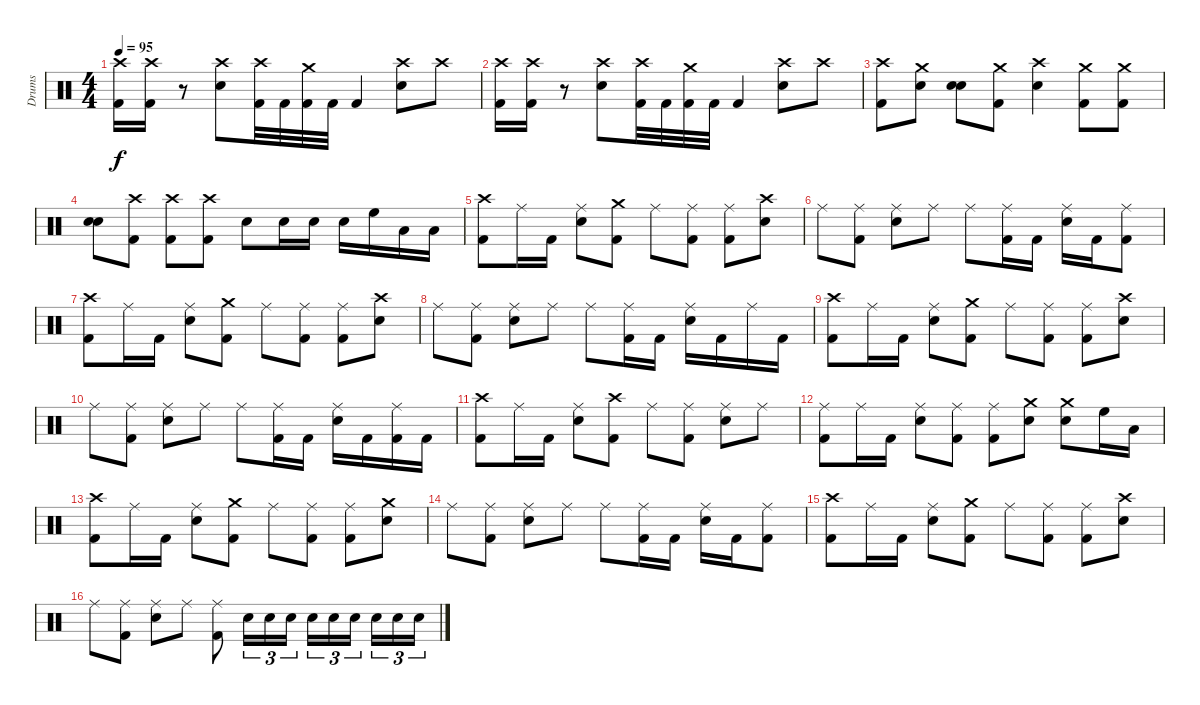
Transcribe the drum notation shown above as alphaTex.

\track ("Drums" "Drums") {instrument percussion}
\staff {score}
\articulation defaults
\ts (4 4)
\tempo 95
\clef neutral
\ks c
("Crash high (hit)" "Kick (hit) 2").16{dy f} ("Crash high (hit)" "Kick (hit) 2").16 r.8 ("Crash high (hit)" "Snare (hit) 2").8 ("Crash high (hit)" "Kick (hit) 2").32 "Kick (hit) 2".32 ("Crash medium (hit)" "Kick (hit) 2").32 "Kick (hit) 2".32 "Kick (hit) 2".4 ("Crash high (hit)" "Snare (hit) 2").8 "Crash high (hit)".8 |
("Crash high (hit)" "Kick (hit) 2").16 ("Crash high (hit)" "Kick (hit) 2").16 r.8 ("Crash high (hit)" "Snare (hit) 2").8 ("Crash high (hit)" "Kick (hit) 2").32 "Kick (hit) 2".32 ("Crash medium (hit)" "Kick (hit) 2").32 "Kick (hit) 2".32 "Kick (hit) 2".4 ("Crash high (hit)" "Snare (hit) 2").8 "Crash high (hit)".8 |
("Crash high (hit)" "Kick (hit) 2").8 ("Crash medium (hit)" "Snare (hit) 2").8 ("Snare (hit)" "Snare (hit)").8 ("Crash medium (hit)" "Kick (hit) 2").8 ("Crash high (hit)" "Snare (hit) 2").4 ("Crash medium (hit)" "Kick (hit) 2").8 ("Crash medium (hit)" "Kick (hit) 2").8 |
("Snare (hit)" "Snare (hit)").8 ("Crash high (hit)" "Kick (hit) 2").8 ("Crash high (hit)" "Kick (hit) 2").8 ("Crash high (hit)" "Kick (hit) 2").8 "Snare (hit) 2".8 "Snare (hit) 2".16 "Snare (hit) 2".16 "Snare (hit) 2".16 "High Floor Tom (hit)".16 "Low Tom (hit)".16 "Low Tom (hit)".16 |
("Crash high (hit)" "Kick (hit) 2").8 "Ride (middle)".16 "Kick (hit) 2".16 ("Ride (middle)" "Snare (hit) 2").8 ("Crash medium (hit)" "Kick (hit) 2").8 "Ride (middle)".8 ("Ride (middle)" "Kick (hit) 2").8 ("Ride (middle)" "Kick (hit) 2").8 ("Crash high (hit)" "Snare (hit) 2").8 |
"Ride (middle)".8 ("Ride (middle)" "Kick (hit) 2").8 ("Ride (middle)" "Snare (hit) 2").8 "Ride (middle)".8 "Ride (middle)".8 ("Ride (middle)" "Kick (hit) 2").16 "Kick (hit) 2".16 ("Ride (middle)" "Snare (hit) 2").16 "Kick (hit) 2".16 ("Ride (middle)" "Kick (hit) 2").8 |
("Crash high (hit)" "Kick (hit) 2").8 "Ride (middle)".16 "Kick (hit) 2".16 ("Ride (middle)" "Snare (hit) 2").8 ("Crash medium (hit)" "Kick (hit) 2").8 "Ride (middle)".8 ("Ride (middle)" "Kick (hit) 2").8 ("Ride (middle)" "Kick (hit) 2").8 ("Crash high (hit)" "Snare (hit) 2").8 |
"Ride (middle)".8 ("Ride (middle)" "Kick (hit) 2").8 ("Ride (middle)" "Snare (hit) 2").8 "Ride (middle)".8 "Ride (middle)".8 ("Ride (middle)" "Kick (hit) 2").16 "Kick (hit) 2".16 ("Ride (middle)" "Snare (hit) 2").16 "Kick (hit) 2".16 "Ride (middle)".16 "Kick (hit) 2".16 |
("Crash high (hit)" "Kick (hit) 2").8 "Ride (middle)".16 "Kick (hit) 2".16 ("Ride (middle)" "Snare (hit) 2").8 ("Crash medium (hit)" "Kick (hit) 2").8 "Ride (middle)".8 ("Ride (middle)" "Kick (hit) 2").8 ("Ride (middle)" "Kick (hit) 2").8 ("Crash high (hit)" "Snare (hit) 2").8 |
"Ride (middle)".8 ("Ride (middle)" "Kick (hit) 2").8 ("Ride (middle)" "Snare (hit) 2").8 "Ride (middle)".8 "Ride (middle)".8 ("Ride (middle)" "Kick (hit) 2").16 "Kick (hit) 2".16 ("Ride (middle)" "Snare (hit) 2").16 "Kick (hit) 2".16 ("Ride (middle)" "Kick (hit) 2").16 "Kick (hit) 2".16 |
("Crash high (hit)" "Kick (hit) 2").8 "Ride (middle)".16 "Kick (hit) 2".16 ("Ride (middle)" "Snare (hit) 2").8 ("Crash high (hit)" "Kick (hit) 2").8 "Ride (middle)".8 ("Ride (middle)" "Kick (hit) 2").8 ("Ride (middle)" "Snare (hit) 2").8 "Ride (middle)".8 |
("Ride (middle)" "Kick (hit) 2").8 "Ride (middle)".16 "Kick (hit) 2".16 ("Ride (middle)" "Snare (hit) 2").8 ("Ride (middle)" "Kick (hit) 2").8 ("Ride (middle)" "Kick (hit) 2").8 ("Crash medium (hit)" "Snare (hit) 2").8 ("Crash medium (hit)" "Snare (hit) 2").8 "High Floor Tom (hit)".16 "Low Tom (hit)".16 |
("Crash high (hit)" "Kick (hit) 2").8 "Ride (middle)".16 "Kick (hit) 2".16 ("Ride (middle)" "Snare (hit) 2").8 ("Crash medium (hit)" "Kick (hit) 2").8 "Ride (middle)".8 ("Ride (middle)" "Kick (hit) 2").8 ("Ride (middle)" "Kick (hit) 2").8 ("Crash medium (hit)" "Snare (hit) 2").8 |
"Ride (middle)".8 ("Ride (middle)" "Kick (hit) 2").8 ("Ride (middle)" "Snare (hit) 2").8 "Ride (middle)".8 "Ride (middle)".8 ("Ride (middle)" "Kick (hit) 2").16 "Kick (hit) 2".16 ("Ride (middle)" "Snare (hit) 2").16 "Kick (hit) 2".16 ("Ride (middle)" "Kick (hit) 2").8 |
("Crash high (hit)" "Kick (hit) 2").8 "Ride (middle)".16 "Kick (hit) 2".16 ("Ride (middle)" "Snare (hit) 2").8 ("Crash medium (hit)" "Kick (hit) 2").8 "Ride (middle)".8 ("Ride (middle)" "Kick (hit) 2").8 ("Ride (middle)" "Kick (hit) 2").8 ("Crash high (hit)" "Snare (hit) 2").8 |
"Ride (middle)".8 ("Ride (middle)" "Kick (hit) 2").8 ("Ride (middle)" "Snare (hit) 2").8 "Ride (middle)".8 ("Ride (middle)" "Kick (hit) 2").8 "Snare (hit) 2".16{tu (3 2)} "Snare (hit) 2".16{tu (3 2)} "Snare (hit) 2".16{tu (3 2)} "Snare (hit) 2".16{tu (3 2)} "Snare (hit) 2".16{tu (3 2)} "Snare (hit) 2".16{tu (3 2)} "Snare (hit) 2".16{tu (3 2)} "Snare (hit) 2".16{tu (3 2)} "Snare (hit) 2".16{tu (3 2)}
